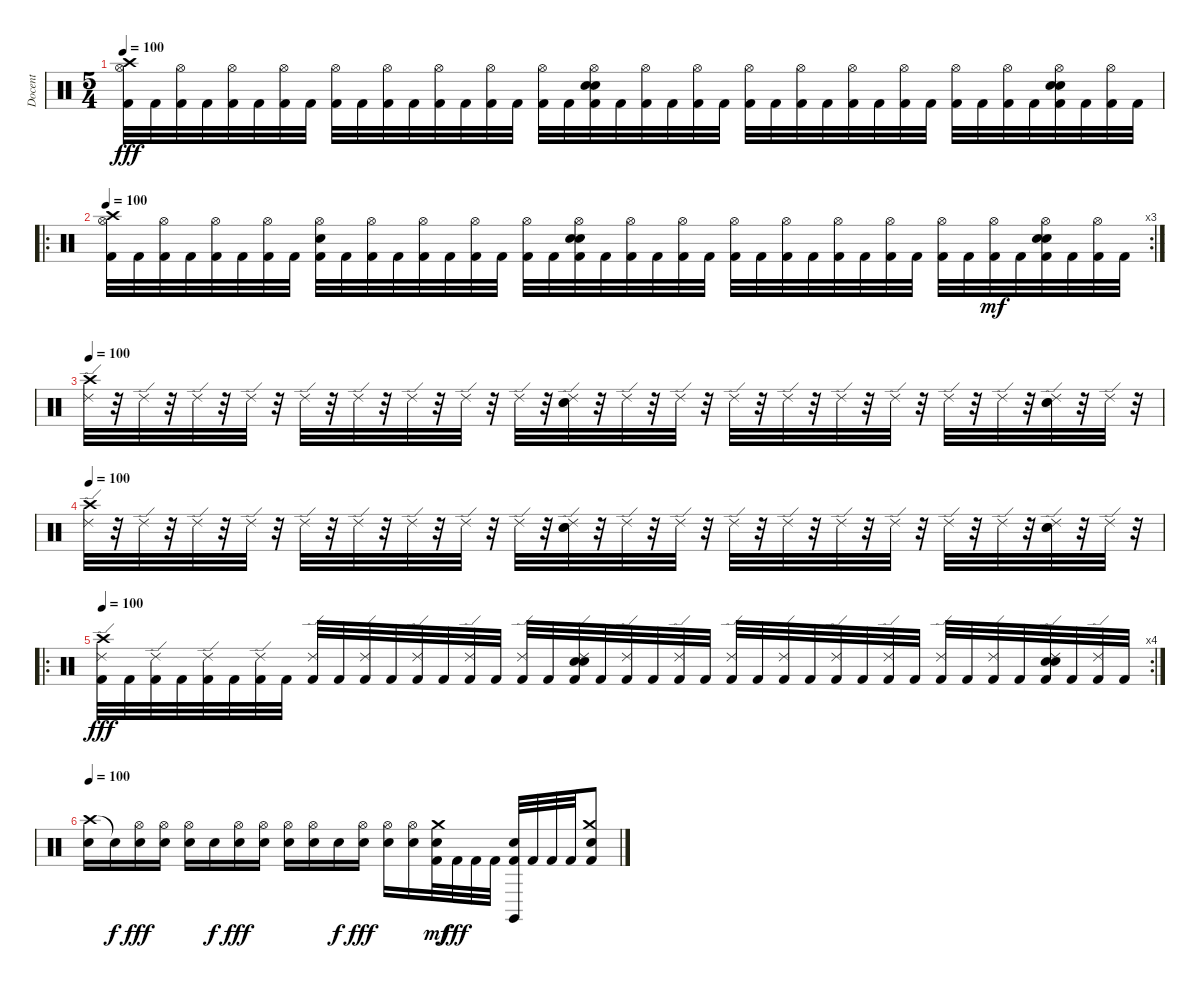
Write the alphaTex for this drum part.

\track ("Docent" "Docent") {instrument percussion}
\staff {score}
\articulation defaults
\ts (5 4)
\tempo 100
\clef neutral
\ks c
("Crash high (hit)" "Hi-Hat (open)" "Kick (hit) 2").32{dy fff} "Kick (hit) 2".32 ("Hi-Hat (open)" "Kick (hit) 2").32 "Kick (hit) 2".32 ("Hi-Hat (open)" "Kick (hit) 2").32 "Kick (hit) 2".32 ("Hi-Hat (open)" "Kick (hit) 2").32 "Kick (hit) 2".32 ("Hi-Hat (open)" "Kick (hit) 2").32 "Kick (hit) 2".32 ("Hi-Hat (open)" "Kick (hit) 2").32 "Kick (hit) 2".32 ("Hi-Hat (open)" "Kick (hit) 2").32 "Kick (hit) 2".32 ("Hi-Hat (open)" "Kick (hit) 2").32 "Kick (hit) 2".32 ("Hi-Hat (open)" "Kick (hit) 2").32 "Kick (hit) 2".32 ("Hi-Hat (open)" "Electric Snare (hit)" "Snare (hit) 2" "Kick (hit) 2").32 "Kick (hit) 2".32 ("Hi-Hat (open)" "Kick (hit) 2").32 "Kick (hit) 2".32 ("Hi-Hat (open)" "Kick (hit) 2").32 "Kick (hit) 2".32 ("Hi-Hat (open)" "Kick (hit) 2").32 "Kick (hit) 2".32 ("Hi-Hat (open)" "Kick (hit) 2").32 "Kick (hit) 2".32 ("Hi-Hat (open)" "Kick (hit) 2").32 "Kick (hit) 2".32 ("Hi-Hat (open)" "Kick (hit) 2").32 "Kick (hit) 2".32 ("Hi-Hat (open)" "Kick (hit) 2").32 "Kick (hit) 2".32 ("Hi-Hat (open)" "Kick (hit) 2").32 "Kick (hit) 2".32 ("Hi-Hat (open)" "Snare (hit) 2" "Electric Snare (hit)" "Kick (hit) 2").32 "Kick (hit) 2".32 ("Hi-Hat (open)" "Kick (hit) 2").32 "Kick (hit) 2".32 |
\ro
\rc 3
\tempo 100
("Crash high (hit)" "Hi-Hat (open)" "Kick (hit) 2").32 "Kick (hit) 2".32 ("Hi-Hat (open)" "Kick (hit) 2").32 "Kick (hit) 2".32 ("Hi-Hat (open)" "Kick (hit) 2").32 "Kick (hit) 2".32 ("Hi-Hat (open)" "Kick (hit) 2").32 "Kick (hit) 2".32 ("Hi-Hat (open)" "Electric Snare (hit)" "Kick (hit) 2").32 "Kick (hit) 2".32 ("Hi-Hat (open)" "Kick (hit) 2").32 "Kick (hit) 2".32 ("Hi-Hat (open)" "Kick (hit) 2").32 "Kick (hit) 2".32 ("Hi-Hat (open)" "Kick (hit) 2").32 "Kick (hit) 2".32 ("Hi-Hat (open)" "Kick (hit) 2").32 "Kick (hit) 2".32 ("Hi-Hat (open)" "Electric Snare (hit)" "Snare (hit) 2" "Kick (hit) 2").32 "Kick (hit) 2".32 ("Hi-Hat (open)" "Kick (hit) 2").32 "Kick (hit) 2".32 ("Hi-Hat (open)" "Kick (hit) 2").32 "Kick (hit) 2".32 ("Hi-Hat (open)" "Kick (hit) 2").32 "Kick (hit) 2".32 ("Hi-Hat (open)" "Kick (hit) 2").32 "Kick (hit) 2".32 ("Hi-Hat (open)" "Kick (hit) 2").32 "Kick (hit) 2".32 ("Hi-Hat (open)" "Kick (hit) 2").32 "Kick (hit) 2".32 ("Hi-Hat (open)" "Kick (hit) 2").32 "Kick (hit) 2".32 ("Hi-Hat (open)" "Kick (hit) 2").32{dy mf} "Kick (hit) 2".32 ("Hi-Hat (open)" "Snare (hit) 2" "Electric Snare (hit)" "Kick (hit) 2").32 "Kick (hit) 2".32 ("Hi-Hat (open)" "Kick (hit) 2").32 "Kick (hit) 2".32 |
\tempo 100
("Crash high (hit)" "Ride (edge) 2").32 r.32 "Ride (edge) 2".32 r.32 "Ride (edge) 2".32 r.32 "Ride (edge) 2".32 r.32 "Ride (edge) 2".32 r.32 "Ride (edge) 2".32 r.32 "Ride (edge) 2".32 r.32 "Ride (edge) 2".32 r.32 "Ride (edge) 2".32 r.32 ("Ride (edge) 2" "Electric Snare (hit)" "Snare (hit) 2").32 r.32 "Ride (edge) 2".32 r.32 "Ride (edge) 2".32 r.32 "Ride (edge) 2".32 r.32 "Ride (edge) 2".32 r.32 "Ride (edge) 2".32 r.32 "Ride (edge) 2".32 r.32 "Ride (edge) 2".32 r.32 "Ride (edge) 2".32 r.32 ("Ride (edge) 2" "Electric Snare (hit)" "Snare (hit) 2").32 r.32 "Ride (edge) 2".32 r.32 |
\tempo 100
("Crash high (hit)" "Ride (edge) 2").32 r.32 "Ride (edge) 2".32 r.32 "Ride (edge) 2".32 r.32 "Ride (edge) 2".32 r.32 "Ride (edge) 2".32 r.32 "Ride (edge) 2".32 r.32 "Ride (edge) 2".32 r.32 "Ride (edge) 2".32 r.32 "Ride (edge) 2".32 r.32 ("Ride (edge) 2" "Electric Snare (hit)" "Snare (hit) 2").32 r.32 "Ride (edge) 2".32 r.32 "Ride (edge) 2".32 r.32 "Ride (edge) 2".32 r.32 "Ride (edge) 2".32 r.32 "Ride (edge) 2".32 r.32 "Ride (edge) 2".32 r.32 "Ride (edge) 2".32 r.32 "Ride (edge) 2".32 r.32 ("Ride (edge) 2" "Electric Snare (hit)" "Snare (hit) 2").32 r.32 "Ride (edge) 2".32 r.32 |
\ro
\rc 4
\tempo 100
("Crash high (hit)" "Ride (edge) 2" "Kick (hit) 2").32{dy fff} "Kick (hit) 2".32 ("Ride (edge) 2" "Kick (hit) 2").32 "Kick (hit) 2".32 ("Ride (edge) 2" "Kick (hit) 2").32 "Kick (hit) 2".32 ("Ride (edge) 2" "Kick (hit) 2").32 "Kick (hit) 2".32 ("Ride (edge) 2" "Kick (hit) 2").32 "Kick (hit) 2".32 ("Ride (edge) 2" "Kick (hit) 2").32 "Kick (hit) 2".32 ("Ride (edge) 2" "Kick (hit) 2").32 "Kick (hit) 2".32 ("Ride (edge) 2" "Kick (hit) 2").32 "Kick (hit) 2".32 ("Ride (edge) 2" "Kick (hit) 2").32 "Kick (hit) 2".32 ("Ride (edge) 2" "Electric Snare (hit)" "Snare (hit) 2" "Kick (hit) 2").32 "Kick (hit) 2".32 ("Ride (edge) 2" "Kick (hit) 2").32 "Kick (hit) 2".32 ("Ride (edge) 2" "Kick (hit) 2").32 "Kick (hit) 2".32 ("Ride (edge) 2" "Kick (hit) 2").32 "Kick (hit) 2".32 ("Ride (edge) 2" "Kick (hit) 2").32 "Kick (hit) 2".32 ("Ride (edge) 2" "Kick (hit) 2").32 "Kick (hit) 2".32 ("Ride (edge) 2" "Kick (hit) 2").32 "Kick (hit) 2".32 ("Ride (edge) 2" "Kick (hit) 2").32 "Kick (hit) 2".32 ("Ride (edge) 2" "Kick (hit) 2").32 "Kick (hit) 2".32 ("Ride (edge) 2" "Electric Snare (hit)" "Snare (hit) 2" "Kick (hit) 2").32 "Kick (hit) 2".32 ("Ride (edge) 2" "Kick (hit) 2").32 "Kick (hit) 2".32 |
\tempo 100
("Crash high (hit)" "Electric Snare (hit)").16 "Snare (hit)"{t}.16{dy f} ("Hi-Hat (open)" "Electric Snare (hit)").16{dy fff} ("Hi-Hat (open)" "Electric Snare (hit)").16 ("Hi-Hat (open)" "Electric Snare (hit)").16 "Electric Snare (hit)"{x}.16{dy f} ("Hi-Hat (open)" "Electric Snare (hit)").16{dy fff} ("Hi-Hat (open)" "Electric Snare (hit)").16 ("Hi-Hat (open)" "Electric Snare (hit)").16 ("Hi-Hat (open)" "Electric Snare (hit)").16 "Electric Snare (hit)"{x}.16{dy f} ("Hi-Hat (open)" "Electric Snare (hit)").16{dy fff} ("Hi-Hat (open)" "Electric Snare (hit)").16 ("Hi-Hat (open)" "Electric Snare (hit)").16 ("Crash medium (hit)" "Electric Snare (hit)" "Kick (hit) 2").32{dy mf} "Kick (hit) 2".32{dy fff} "Kick (hit) 2".32 "Kick (hit) 2".32 ("Claves (hit)" "Electric Snare (hit)" "Kick (hit) 2").32 "Kick (hit) 2".32 "Kick (hit) 2".32 "Kick (hit) 2".32 ("Crash medium (hit)" "Electric Snare (hit)" "Kick (hit) 2").8
